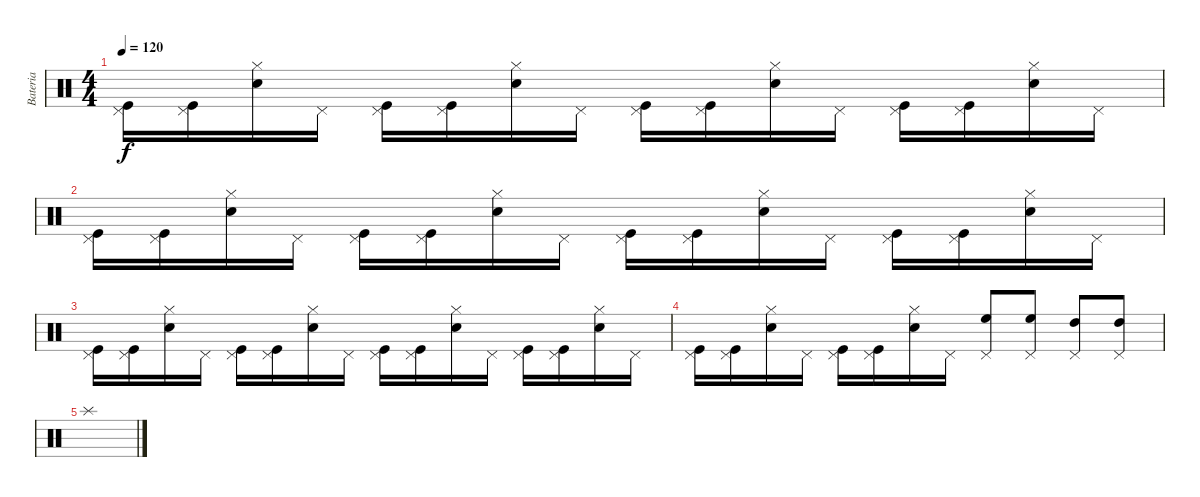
\track ("Bateria" "Bateria") {instrument percussion}
\staff {score}
\articulation defaults
\ts (4 4)
\tempo 120
\clef neutral
\ks c
("Pedal Hi-Hat (hit)" "Kick (hit)").16{dy f} ("Pedal Hi-Hat (hit)" "Kick (hit)").16 ("Hi-Hat (closed)" "Electric Snare (hit)").16 "Pedal Hi-Hat (hit)".16 ("Pedal Hi-Hat (hit)" "Kick (hit)").16 ("Pedal Hi-Hat (hit)" "Kick (hit)").16 ("Hi-Hat (closed)" "Electric Snare (hit)").16 "Pedal Hi-Hat (hit)".16 ("Pedal Hi-Hat (hit)" "Kick (hit)").16 ("Pedal Hi-Hat (hit)" "Kick (hit)").16 ("Hi-Hat (closed)" "Electric Snare (hit)").16 "Pedal Hi-Hat (hit)".16 ("Pedal Hi-Hat (hit)" "Kick (hit)").16 ("Pedal Hi-Hat (hit)" "Kick (hit)").16 ("Hi-Hat (closed)" "Electric Snare (hit)").16 "Pedal Hi-Hat (hit)".16 |
("Pedal Hi-Hat (hit)" "Kick (hit)").16 ("Pedal Hi-Hat (hit)" "Kick (hit)").16 ("Hi-Hat (closed)" "Electric Snare (hit)").16 "Pedal Hi-Hat (hit)".16 ("Pedal Hi-Hat (hit)" "Kick (hit)").16 ("Pedal Hi-Hat (hit)" "Kick (hit)").16 ("Hi-Hat (closed)" "Electric Snare (hit)").16 "Pedal Hi-Hat (hit)".16 ("Pedal Hi-Hat (hit)" "Kick (hit)").16 ("Pedal Hi-Hat (hit)" "Kick (hit)").16 ("Hi-Hat (closed)" "Electric Snare (hit)").16 "Pedal Hi-Hat (hit)".16 ("Pedal Hi-Hat (hit)" "Kick (hit)").16 ("Pedal Hi-Hat (hit)" "Kick (hit)").16 ("Hi-Hat (closed)" "Electric Snare (hit)").16 "Pedal Hi-Hat (hit)".16 |
("Pedal Hi-Hat (hit)" "Kick (hit)").16 ("Pedal Hi-Hat (hit)" "Kick (hit)").16 ("Hi-Hat (closed)" "Electric Snare (hit)").16 "Pedal Hi-Hat (hit)".16 ("Pedal Hi-Hat (hit)" "Kick (hit)").16 ("Pedal Hi-Hat (hit)" "Kick (hit)").16 ("Hi-Hat (closed)" "Electric Snare (hit)").16 "Pedal Hi-Hat (hit)".16 ("Pedal Hi-Hat (hit)" "Kick (hit)").16 ("Pedal Hi-Hat (hit)" "Kick (hit)").16 ("Hi-Hat (closed)" "Electric Snare (hit)").16 "Pedal Hi-Hat (hit)".16 ("Pedal Hi-Hat (hit)" "Kick (hit)").16 ("Pedal Hi-Hat (hit)" "Kick (hit)").16 ("Hi-Hat (closed)" "Electric Snare (hit)").16 "Pedal Hi-Hat (hit)".16 |
("Pedal Hi-Hat (hit)" "Kick (hit)").16 ("Pedal Hi-Hat (hit)" "Kick (hit)").16 ("Hi-Hat (closed)" "Electric Snare (hit)").16 "Pedal Hi-Hat (hit)".16 ("Pedal Hi-Hat (hit)" "Kick (hit)").16 ("Pedal Hi-Hat (hit)" "Kick (hit)").16 ("Hi-Hat (closed)" "Electric Snare (hit)").16 "Pedal Hi-Hat (hit)".16 ("High Floor Tom (hit)" "Pedal Hi-Hat (hit)").8 ("High Floor Tom (hit)" "Pedal Hi-Hat (hit)").8 ("High Tom (hit)" "Pedal Hi-Hat (hit)").8 ("High Tom (hit)" "Pedal Hi-Hat (hit)").8 |
"Splash (hit)".1
